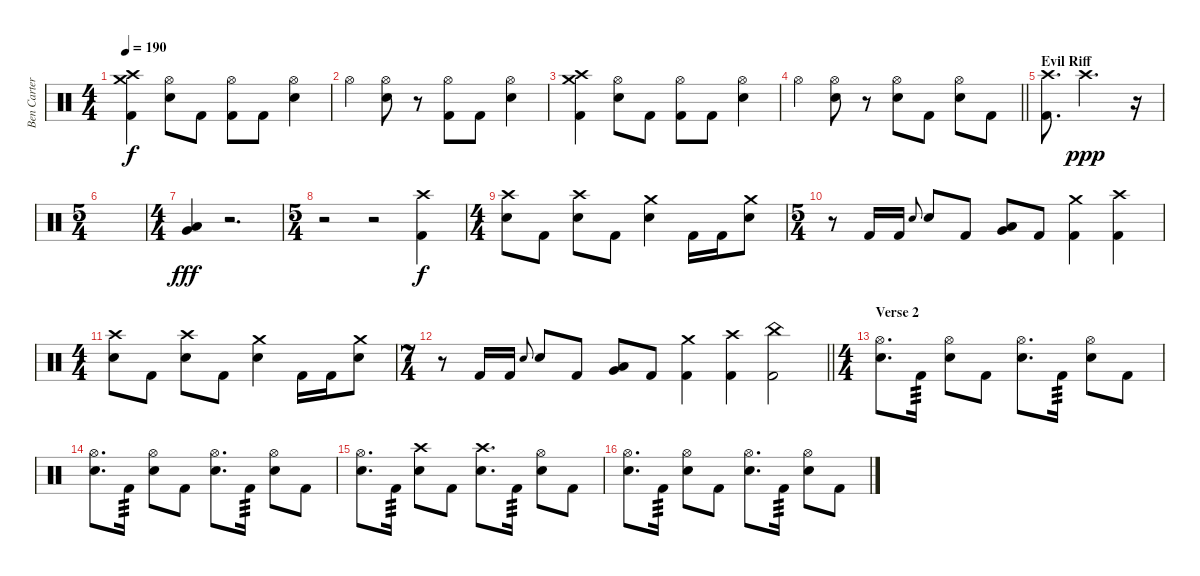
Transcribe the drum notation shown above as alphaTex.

\track ("Ben Carter" "Ben Carter") {instrument percussion}
\staff {score}
\articulation defaults
\ts (4 4)
\tempo 190
\clef neutral
\ks c
("Crash medium (hit)" "Crash high (hit)" "Kick (hit) 2").4{dy f} ("Hi-Hat (open)" "Snare (hit) 2").8 "Kick (hit) 2".8 ("Hi-Hat (open)" "Kick (hit) 2").8 "Kick (hit) 2".8 ("Hi-Hat (open)" "Snare (hit) 2").4 |
"Hi-Hat (open)".4 ("Hi-Hat (open)" "Snare (hit) 2").8 r.8 ("Hi-Hat (open)" "Kick (hit) 2").8 "Kick (hit) 2".8 ("Hi-Hat (open)" "Snare (hit) 2").4 |
("Crash medium (hit)" "Crash high (hit)" "Kick (hit) 2").4 ("Hi-Hat (open)" "Snare (hit) 2").8 "Kick (hit) 2".8 ("Hi-Hat (open)" "Kick (hit) 2").8 "Kick (hit) 2".8 ("Hi-Hat (open)" "Snare (hit) 2").4 |
\barLineRight lightlight "Hi-Hat (open)".4
("Hi-Hat (open)" "Snare (hit) 2").8 r.8 ("Hi-Hat (open)" "Snare (hit) 2").8 "Kick (hit) 2".8 ("Hi-Hat (open)" "Snare (hit) 2").8 "Kick (hit) 2".8 |
\section ("" "Evil Riff")
("Crash high (hit)" "Kick (hit) 2").8{d} "Crash high (hit)".2{d dy ppp} r.16 |
\ts (5 4)
|
\ts (4 4)
("Low Tom (hit)" "Very Low Tom (hit)").4{dy fff} r.2{d} |
\ts (5 4)
r.2 r.2 ("Crash high (hit)" "Kick (hit) 2").4{dy f} |
\ts (4 4)
("Crash high (hit)" "Snare (hit) 2").8 "Kick (hit) 2".8 ("Crash high (hit)" "Snare (hit) 2").8 "Kick (hit) 2".8 ("Crash medium (hit)" "Snare (hit) 2").4 "Kick (hit) 2".16 "Kick (hit) 2".16 ("Crash medium (hit)" "Snare (hit) 2").8 |
\ts (5 4)
r.8 "Kick (hit) 2".16 "Kick (hit) 2".16 "Snare (hit) 2".8{gr onbeat} "Snare (hit) 2".8 "Kick (hit) 2".8 ("Low Tom (hit)" "Very Low Tom (hit)").8 "Kick (hit) 2".8 ("Crash medium (hit)" "Kick (hit) 2").4 ("Crash high (hit)" "Kick (hit) 2").4 |
\ts (4 4)
("Crash high (hit)" "Snare (hit) 2").8 "Kick (hit) 2".8 ("Crash high (hit)" "Snare (hit) 2").8 "Kick (hit) 2".8 ("Crash medium (hit)" "Snare (hit) 2").4 "Kick (hit) 2".16 "Kick (hit) 2".16 ("Crash medium (hit)" "Snare (hit) 2").8 |
\ts (7 4)
\barLineRight lightlight
r.8 "Kick (hit) 2".16 "Kick (hit) 2".16 "Snare (hit) 2".8{gr onbeat} "Snare (hit) 2".8 "Kick (hit) 2".8 ("Low Tom (hit)" "Very Low Tom (hit)").8 "Kick (hit) 2".8 ("Crash medium (hit)" "Kick (hit) 2").4 ("Crash high (hit)" "Kick (hit) 2").4 ("China (hit)" "Kick (hit) 2").2 |
\ts (4 4)
\section ("" "Verse 2")
("Hi-Hat (open)" "Snare (hit) 2").8{d} "Kick (hit) 2".16{tp 3} ("Hi-Hat (open)" "Snare (hit) 2").8 "Kick (hit) 2".8 ("Hi-Hat (open)" "Snare (hit) 2").8{d} "Kick (hit) 2".16{tp 3} ("Hi-Hat (open)" "Snare (hit) 2").8 "Kick (hit) 2".8 |
("Hi-Hat (open)" "Snare (hit) 2").8{d} "Kick (hit) 2".16{tp 3} ("Hi-Hat (open)" "Snare (hit) 2").8 "Kick (hit) 2".8 ("Hi-Hat (open)" "Snare (hit) 2").8{d} "Kick (hit) 2".16{tp 3} ("Hi-Hat (open)" "Snare (hit) 2").8 "Kick (hit) 2".8 |
("Hi-Hat (open)" "Snare (hit) 2").8{d} "Kick (hit) 2".16{tp 3} ("Crash high (hit)" "Snare (hit) 2").8 "Kick (hit) 2".8 ("Crash high (hit)" "Snare (hit) 2").8{d} "Kick (hit) 2".16{tp 3} ("Hi-Hat (open)" "Snare (hit) 2").8 "Kick (hit) 2".8 |
("Hi-Hat (open)" "Snare (hit) 2").8{d} "Kick (hit) 2".16{tp 3} ("Hi-Hat (open)" "Snare (hit) 2").8 "Kick (hit) 2".8 ("Hi-Hat (open)" "Snare (hit) 2").8{d} "Kick (hit) 2".16{tp 3} ("Hi-Hat (open)" "Snare (hit) 2").8 "Kick (hit) 2".8
